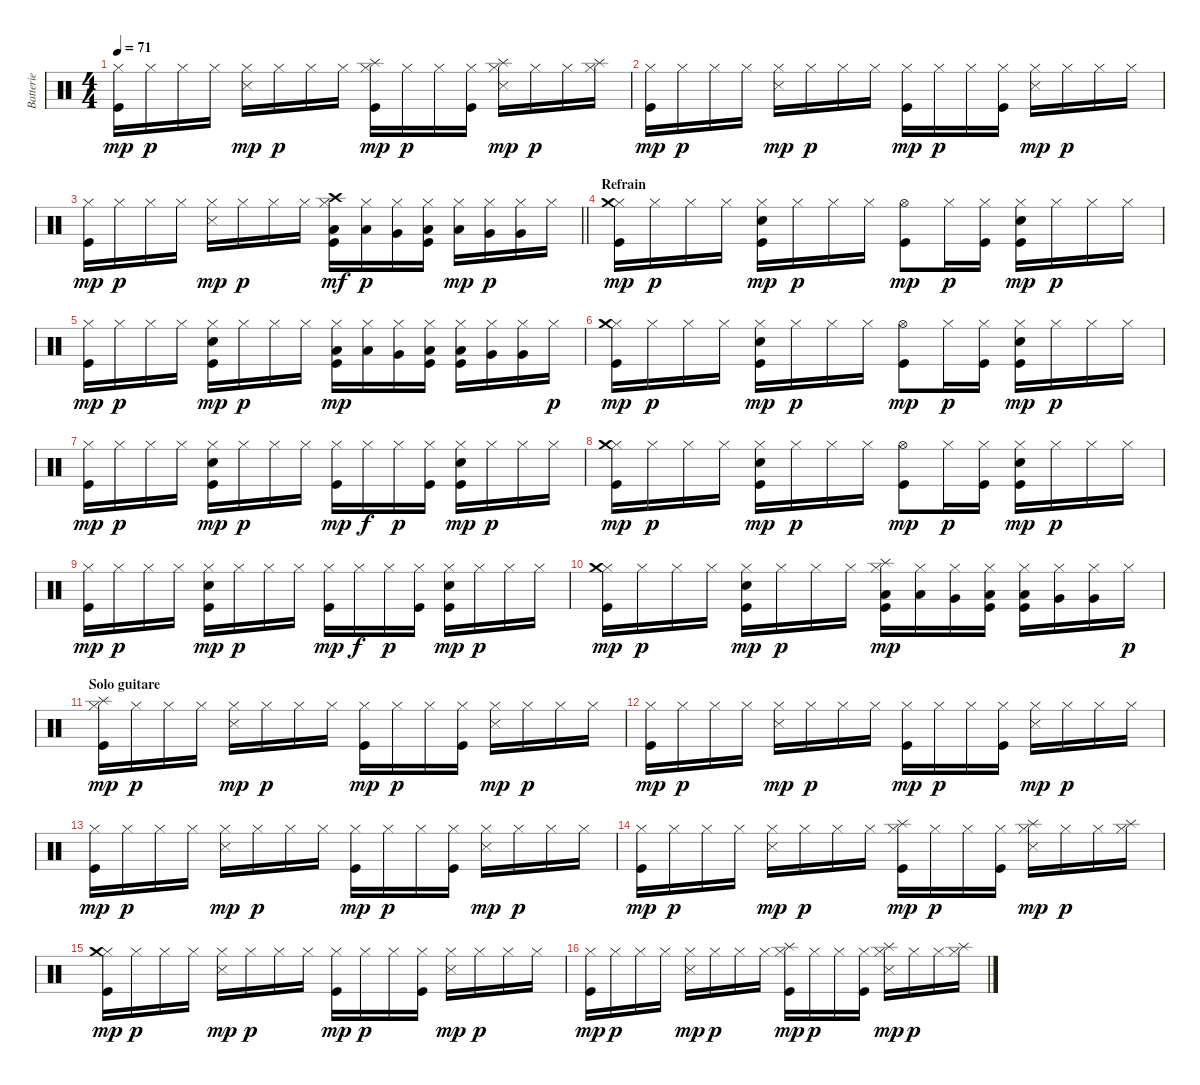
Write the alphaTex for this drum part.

\track ("Batterie" "Batterie") {instrument percussion}
\staff {score}
\articulation defaults
\ts (4 4)
\tempo 71
\clef neutral
\ks c
("Hi-Hat (closed)" "Kick (hit)").16{dy mp} "Hi-Hat (closed)".16{dy p} "Hi-Hat (closed)".16 "Hi-Hat (closed)".16 ("Hi-Hat (closed)" "Snare (side stick) 3").16{dy mp} "Hi-Hat (closed)".16{dy p} "Hi-Hat (closed)".16 "Hi-Hat (closed)".16 ("Hi-Hat (closed)" "Splash (hit)" "Kick (hit)").16{dy mp} "Hi-Hat (closed)".16{dy p} "Hi-Hat (closed)".16 ("Hi-Hat (closed)" "Kick (hit)").16 ("Hi-Hat (closed)" "Splash (hit)" "Snare (side stick) 3").16{dy mp} "Hi-Hat (closed)".16{dy p} "Hi-Hat (closed)".16 ("Hi-Hat (closed)" "Splash (hit)").16 |
("Hi-Hat (closed)" "Kick (hit)").16{dy mp} "Hi-Hat (closed)".16{dy p} "Hi-Hat (closed)".16 "Hi-Hat (closed)".16 ("Hi-Hat (closed)" "Snare (side stick) 3").16{dy mp} "Hi-Hat (closed)".16{dy p} "Hi-Hat (closed)".16 "Hi-Hat (closed)".16 ("Hi-Hat (closed)" "Kick (hit)").16{dy mp} "Hi-Hat (closed)".16{dy p} "Hi-Hat (closed)".16 ("Hi-Hat (closed)" "Kick (hit)").16 ("Hi-Hat (closed)" "Snare (side stick) 3").16{dy mp} "Hi-Hat (closed)".16{dy p} "Hi-Hat (closed)".16 "Hi-Hat (closed)".16 |
\barLineRight lightlight
("Hi-Hat (closed)" "Kick (hit)").16{dy mp} "Hi-Hat (closed)".16{dy p} "Hi-Hat (closed)".16 "Hi-Hat (closed)".16 ("Hi-Hat (closed)" "Snare (side stick) 3").16{dy mp} "Hi-Hat (closed)".16{dy p} "Hi-Hat (closed)".16 "Hi-Hat (closed)".16 ("Hi-Hat (closed)" "Crash high (hit)" "Low Tom (hit)" "Kick (hit)").16{dy mf} ("Hi-Hat (closed)" "Low Tom (hit)").16{dy p} ("Hi-Hat (closed)" "Very Low Tom (hit)").16 ("Hi-Hat (closed)" "Low Floor Tom (hit)" "Kick (hit)").16 ("Hi-Hat (closed)" "Low Floor Tom (hit)").16{dy mp} ("Hi-Hat (closed)" "Very Low Tom (hit)").16{dy p} ("Hi-Hat (closed)" "Very Low Tom (hit)").16 "Hi-Hat (closed)".16 |
\section ("" "Refrain")
("Hi-Hat (closed)" "Crash medium (hit)" "Kick (hit)").16{dy mp} "Hi-Hat (closed)".16{dy p} "Hi-Hat (closed)".16 "Hi-Hat (closed)".16 ("Hi-Hat (closed)" "Electric Snare (hit)" "Kick (hit)").16{dy mp} "Hi-Hat (closed)".16{dy p} "Hi-Hat (closed)".16 "Hi-Hat (closed)".16 ("Hi-Hat (open)" "Kick (hit)").8{dy mp} "Hi-Hat (closed)".16{dy p} ("Hi-Hat (closed)" "Kick (hit)").16 ("Hi-Hat (closed)" "Electric Snare (hit)" "Kick (hit)").16{dy mp} "Hi-Hat (closed)".16{dy p} "Hi-Hat (closed)".16 "Hi-Hat (closed)".16 |
("Hi-Hat (closed)" "Kick (hit)").16{dy mp} "Hi-Hat (closed)".16{dy p} "Hi-Hat (closed)".16 "Hi-Hat (closed)".16 ("Hi-Hat (closed)" "Electric Snare (hit)" "Kick (hit)").16{dy mp} "Hi-Hat (closed)".16{dy p} "Hi-Hat (closed)".16 "Hi-Hat (closed)".16 ("Hi-Hat (closed)" "Low Tom (hit)" "Kick (hit)").16{dy mp} ("Hi-Hat (closed)" "Low Tom (hit)").16 ("Hi-Hat (closed)" "Very Low Tom (hit)").16 ("Hi-Hat (closed)" "Low Floor Tom (hit)" "Kick (hit)").16 ("Hi-Hat (closed)" "Low Floor Tom (hit)" "Kick (hit)").16 ("Hi-Hat (closed)" "Very Low Tom (hit)").16 ("Hi-Hat (closed)" "Very Low Tom (hit)").16 "Hi-Hat (closed)".16{dy p} |
("Hi-Hat (closed)" "Crash medium (hit)" "Kick (hit)").16{dy mp} "Hi-Hat (closed)".16{dy p} "Hi-Hat (closed)".16 "Hi-Hat (closed)".16 ("Hi-Hat (closed)" "Electric Snare (hit)" "Kick (hit)").16{dy mp} "Hi-Hat (closed)".16{dy p} "Hi-Hat (closed)".16 "Hi-Hat (closed)".16 ("Hi-Hat (open)" "Kick (hit)").8{dy mp} "Hi-Hat (closed)".16{dy p} ("Hi-Hat (closed)" "Kick (hit)").16 ("Hi-Hat (closed)" "Electric Snare (hit)" "Kick (hit)").16{dy mp} "Hi-Hat (closed)".16{dy p} "Hi-Hat (closed)".16 "Hi-Hat (closed)".16 |
("Hi-Hat (closed)" "Kick (hit)").16{dy mp} "Hi-Hat (closed)".16{dy p} "Hi-Hat (closed)".16 "Hi-Hat (closed)".16 ("Hi-Hat (closed)" "Electric Snare (hit)" "Kick (hit)").16{dy mp} "Hi-Hat (closed)".16{dy p} "Hi-Hat (closed)".16 "Hi-Hat (closed)".16 ("Hi-Hat (closed)" "Kick (hit)").16{dy mp} "Hi-Hat (closed)".16{dy f} "Hi-Hat (closed)".16{dy p} ("Hi-Hat (closed)" "Kick (hit)").16 ("Hi-Hat (closed)" "Electric Snare (hit)" "Kick (hit)").16{dy mp} "Hi-Hat (closed)".16{dy p} "Hi-Hat (closed)".16 "Hi-Hat (closed)".16 |
("Hi-Hat (closed)" "Crash medium (hit)" "Kick (hit)").16{dy mp} "Hi-Hat (closed)".16{dy p} "Hi-Hat (closed)".16 "Hi-Hat (closed)".16 ("Hi-Hat (closed)" "Electric Snare (hit)" "Kick (hit)").16{dy mp} "Hi-Hat (closed)".16{dy p} "Hi-Hat (closed)".16 "Hi-Hat (closed)".16 ("Hi-Hat (open)" "Kick (hit)").8{dy mp} "Hi-Hat (closed)".16{dy p} ("Hi-Hat (closed)" "Kick (hit)").16 ("Hi-Hat (closed)" "Electric Snare (hit)" "Kick (hit)").16{dy mp} "Hi-Hat (closed)".16{dy p} "Hi-Hat (closed)".16 "Hi-Hat (closed)".16 |
("Hi-Hat (closed)" "Kick (hit)").16{dy mp} "Hi-Hat (closed)".16{dy p} "Hi-Hat (closed)".16 "Hi-Hat (closed)".16 ("Hi-Hat (closed)" "Electric Snare (hit)" "Kick (hit)").16{dy mp} "Hi-Hat (closed)".16{dy p} "Hi-Hat (closed)".16 "Hi-Hat (closed)".16 ("Hi-Hat (closed)" "Kick (hit)").16{dy mp} "Hi-Hat (closed)".16{dy f} "Hi-Hat (closed)".16{dy p} ("Hi-Hat (closed)" "Kick (hit)").16 ("Hi-Hat (closed)" "Electric Snare (hit)" "Kick (hit)").16{dy mp} "Hi-Hat (closed)".16{dy p} "Hi-Hat (closed)".16 "Hi-Hat (closed)".16 |
("Hi-Hat (closed)" "Crash medium (hit)" "Kick (hit)").16{dy mp} "Hi-Hat (closed)".16{dy p} "Hi-Hat (closed)".16 "Hi-Hat (closed)".16 ("Hi-Hat (closed)" "Electric Snare (hit)" "Kick (hit)").16{dy mp} "Hi-Hat (closed)".16{dy p} "Hi-Hat (closed)".16 "Hi-Hat (closed)".16 ("Hi-Hat (closed)" "Splash (hit)" "Low Tom (hit)" "Kick (hit)").16{dy mp} ("Hi-Hat (closed)" "Low Tom (hit)").16 ("Hi-Hat (closed)" "Very Low Tom (hit)").16 ("Hi-Hat (closed)" "Low Floor Tom (hit)" "Kick (hit)").16 ("Hi-Hat (closed)" "Low Floor Tom (hit)" "Kick (hit)").16 ("Hi-Hat (closed)" "Very Low Tom (hit)").16 ("Hi-Hat (closed)" "Very Low Tom (hit)").16 "Hi-Hat (closed)".16{dy p} |
\section ("" "Solo guitare")
("Hi-Hat (closed)" "Splash (hit)" "Kick (hit)").16{dy mp} "Hi-Hat (closed)".16{dy p} "Hi-Hat (closed)".16 "Hi-Hat (closed)".16 ("Hi-Hat (closed)" "Snare (side stick) 3").16{dy mp} "Hi-Hat (closed)".16{dy p} "Hi-Hat (closed)".16 "Hi-Hat (closed)".16 ("Hi-Hat (closed)" "Kick (hit)").16{dy mp} "Hi-Hat (closed)".16{dy p} "Hi-Hat (closed)".16 ("Hi-Hat (closed)" "Kick (hit)").16 ("Hi-Hat (closed)" "Snare (side stick) 3").16{dy mp} "Hi-Hat (closed)".16{dy p} "Hi-Hat (closed)".16 "Hi-Hat (closed)".16 |
("Hi-Hat (closed)" "Kick (hit)").16{dy mp} "Hi-Hat (closed)".16{dy p} "Hi-Hat (closed)".16 "Hi-Hat (closed)".16 ("Hi-Hat (closed)" "Snare (side stick) 3").16{dy mp} "Hi-Hat (closed)".16{dy p} "Hi-Hat (closed)".16 "Hi-Hat (closed)".16 ("Hi-Hat (closed)" "Kick (hit)").16{dy mp} "Hi-Hat (closed)".16{dy p} "Hi-Hat (closed)".16 ("Hi-Hat (closed)" "Kick (hit)").16 ("Hi-Hat (closed)" "Snare (side stick) 3").16{dy mp} "Hi-Hat (closed)".16{dy p} "Hi-Hat (closed)".16 "Hi-Hat (closed)".16 |
("Hi-Hat (closed)" "Kick (hit)").16{dy mp} "Hi-Hat (closed)".16{dy p} "Hi-Hat (closed)".16 "Hi-Hat (closed)".16 ("Hi-Hat (closed)" "Snare (side stick) 3").16{dy mp} "Hi-Hat (closed)".16{dy p} "Hi-Hat (closed)".16 "Hi-Hat (closed)".16 ("Hi-Hat (closed)" "Kick (hit)").16{dy mp} "Hi-Hat (closed)".16{dy p} "Hi-Hat (closed)".16 ("Hi-Hat (closed)" "Kick (hit)").16 ("Hi-Hat (closed)" "Snare (side stick) 3").16{dy mp} "Hi-Hat (closed)".16{dy p} "Hi-Hat (closed)".16 "Hi-Hat (closed)".16 |
("Hi-Hat (closed)" "Kick (hit)").16{dy mp} "Hi-Hat (closed)".16{dy p} "Hi-Hat (closed)".16 "Hi-Hat (closed)".16 ("Hi-Hat (closed)" "Snare (side stick) 3").16{dy mp} "Hi-Hat (closed)".16{dy p} "Hi-Hat (closed)".16 "Hi-Hat (closed)".16 ("Hi-Hat (closed)" "Splash (hit)" "Kick (hit)").16{dy mp} "Hi-Hat (closed)".16{dy p} "Hi-Hat (closed)".16 ("Hi-Hat (closed)" "Kick (hit)").16 ("Hi-Hat (closed)" "Splash (hit)" "Snare (side stick) 3").16{dy mp} "Hi-Hat (closed)".16{dy p} "Hi-Hat (closed)".16 ("Hi-Hat (closed)" "Splash (hit)").16 |
("Hi-Hat (closed)" "Crash medium (hit)" "Kick (hit)").16{dy mp} "Hi-Hat (closed)".16{dy p} "Hi-Hat (closed)".16 "Hi-Hat (closed)".16 ("Hi-Hat (closed)" "Snare (side stick) 3").16{dy mp} "Hi-Hat (closed)".16{dy p} "Hi-Hat (closed)".16 "Hi-Hat (closed)".16 ("Hi-Hat (closed)" "Kick (hit)").16{dy mp} "Hi-Hat (closed)".16{dy p} "Hi-Hat (closed)".16 ("Hi-Hat (closed)" "Kick (hit)").16 ("Hi-Hat (closed)" "Snare (side stick) 3").16{dy mp} "Hi-Hat (closed)".16{dy p} "Hi-Hat (closed)".16 "Hi-Hat (closed)".16 |
("Hi-Hat (closed)" "Kick (hit)").16{dy mp} "Hi-Hat (closed)".16{dy p} "Hi-Hat (closed)".16 "Hi-Hat (closed)".16 ("Hi-Hat (closed)" "Snare (side stick) 3").16{dy mp} "Hi-Hat (closed)".16{dy p} "Hi-Hat (closed)".16 "Hi-Hat (closed)".16 ("Hi-Hat (closed)" "Splash (hit)" "Kick (hit)").16{dy mp} "Hi-Hat (closed)".16{dy p} "Hi-Hat (closed)".16 ("Hi-Hat (closed)" "Kick (hit)").16 ("Hi-Hat (closed)" "Splash (hit)" "Snare (side stick) 3").16{dy mp} "Hi-Hat (closed)".16{dy p} "Hi-Hat (closed)".16 ("Hi-Hat (closed)" "Splash (hit)").16
